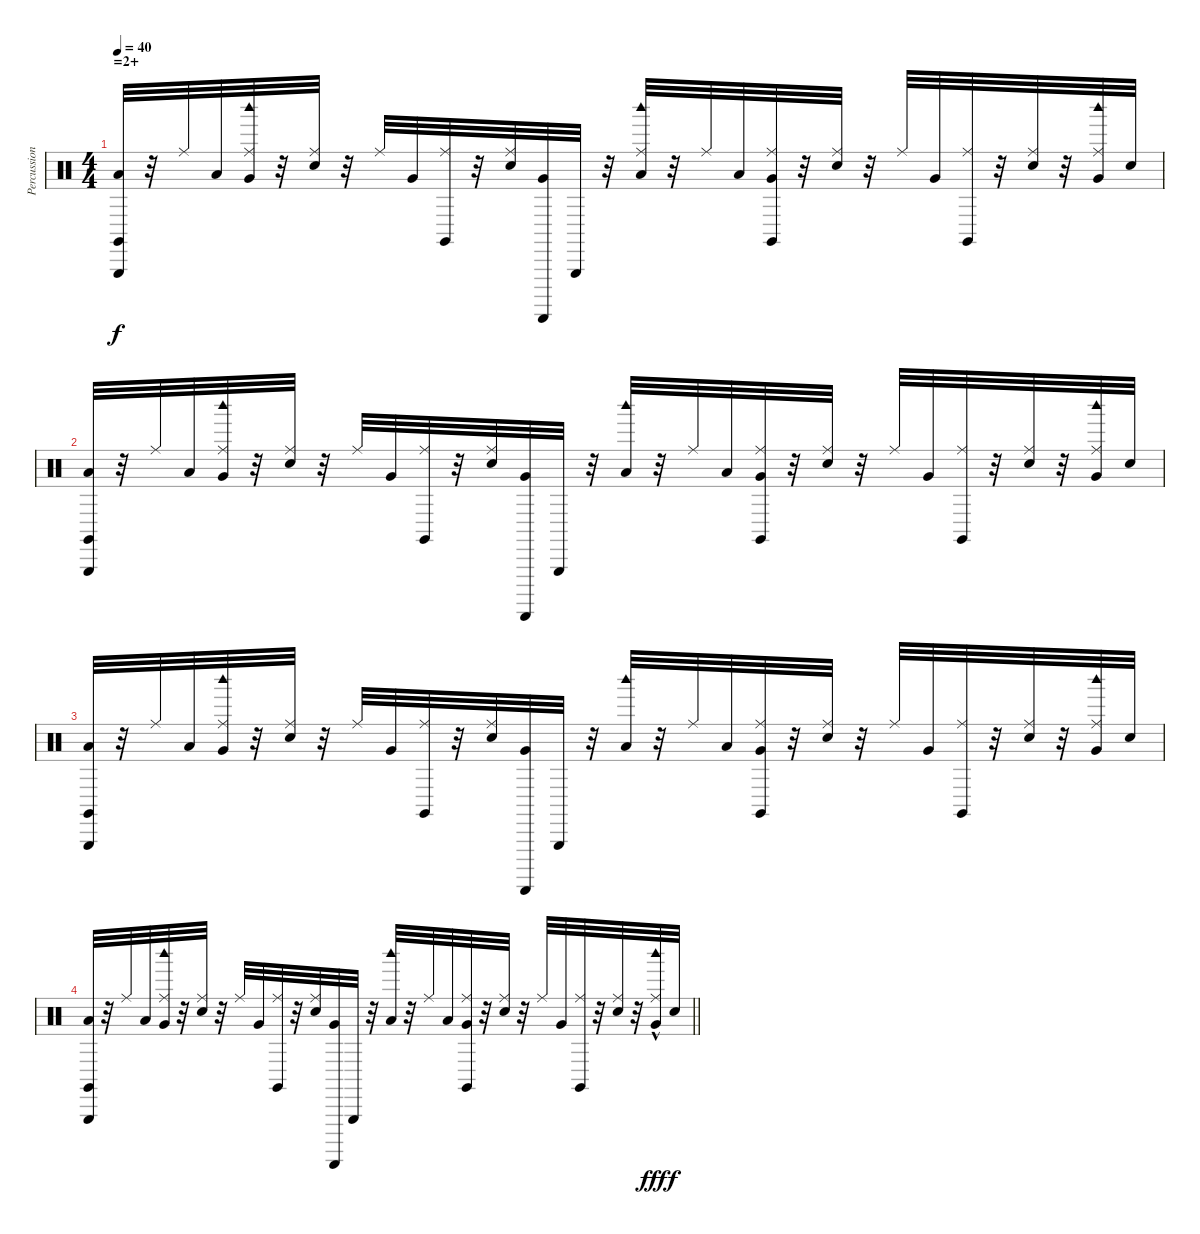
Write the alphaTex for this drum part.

\track ("Percussion" "Percussion") {instrument percussion}
\staff {score}
\articulation defaults
\ts (4 4)
\section ("" "=2+")
\tempo 40
\clef neutral
\ks c
("Low Floor Tom (hit)" "Triangle (hit)" "Claves (hit)").32{dy f} r.32 "Ride (middle)".32 "Low Floor Tom (hit)".32 ("Very Low Tom (hit)" "Ride (middle)" "Woodblock high (hit)").32 r.32 ("Electric Snare (hit)" "Ride (middle)").32 r.32 "Ride (middle)".32 "Very Low Tom (hit)".32 ("Ride (middle)" "Claves (hit)").32 r.32 ("Electric Snare (hit)" "Ride (middle)").32 ("Very Low Tom (hit)" "Guiro (scrap-return)").32 "Triangle (hit)".32 r.32 ("Low Floor Tom (hit)" "Ride (middle)" "Woodblock high (hit)").32 r.32 "Ride (middle)".32 "Low Floor Tom (hit)".32 ("Very Low Tom (hit)" "Ride (middle)" "Claves (hit)").32 r.32 ("Electric Snare (hit)" "Ride (middle)").32 r.32 "Ride (middle)".32 "Very Low Tom (hit)".32 ("Ride (middle)" "Claves (hit)").32 r.32 ("Electric Snare (hit)" "Ride (middle)").32 r.32 ("Very Low Tom (hit)" "Ride (middle)" "Woodblock high (hit)").32 "Electric Snare (hit)".32 |
("Low Floor Tom (hit)" "Triangle (hit)" "Claves (hit)").32 r.32 "Ride (middle)".32 "Low Floor Tom (hit)".32 ("Very Low Tom (hit)" "Ride (middle)" "Woodblock high (hit)").32 r.32 ("Electric Snare (hit)" "Ride (middle)").32 r.32 "Ride (middle)".32 "Very Low Tom (hit)".32 ("Ride (middle)" "Claves (hit)").32 r.32 ("Electric Snare (hit)" "Ride (middle)").32 ("Very Low Tom (hit)" "Guiro (scrap-return)").32 "Triangle (hit)".32 r.32 ("Low Floor Tom (hit)" "Woodblock high (hit)").32 r.32 "Ride (middle)".32 "Low Floor Tom (hit)".32 ("Very Low Tom (hit)" "Ride (middle)" "Claves (hit)").32 r.32 ("Electric Snare (hit)" "Ride (middle)").32 r.32 "Ride (middle)".32 "Very Low Tom (hit)".32 ("Ride (middle)" "Claves (hit)").32 r.32 ("Electric Snare (hit)" "Ride (middle)").32 r.32 ("Very Low Tom (hit)" "Ride (middle)" "Woodblock high (hit)").32 "Electric Snare (hit)".32 |
("Low Floor Tom (hit)" "Triangle (hit)" "Claves (hit)").32 r.32 "Ride (middle)".32 "Low Floor Tom (hit)".32 ("Very Low Tom (hit)" "Ride (middle)" "Woodblock high (hit)").32 r.32 ("Electric Snare (hit)" "Ride (middle)").32 r.32 "Ride (middle)".32 "Very Low Tom (hit)".32 ("Ride (middle)" "Claves (hit)").32 r.32 ("Electric Snare (hit)" "Ride (middle)").32 ("Very Low Tom (hit)" "Guiro (scrap-return)").32 "Triangle (hit)".32 r.32 ("Low Floor Tom (hit)" "Woodblock high (hit)").32 r.32 "Ride (middle)".32 "Low Floor Tom (hit)".32 ("Very Low Tom (hit)" "Ride (middle)" "Claves (hit)").32 r.32 ("Electric Snare (hit)" "Ride (middle)").32 r.32 "Ride (middle)".32 "Very Low Tom (hit)".32 ("Ride (middle)" "Claves (hit)").32 r.32 ("Electric Snare (hit)" "Ride (middle)").32 r.32 ("Very Low Tom (hit)" "Ride (middle)" "Woodblock high (hit)").32 "Electric Snare (hit)".32 |
\barLineRight lightlight
("Low Floor Tom (hit)" "Triangle (hit)" "Claves (hit)").32 r.32 "Ride (middle)".32 "Low Floor Tom (hit)".32 ("Very Low Tom (hit)" "Ride (middle)" "Woodblock high (hit)").32 r.32 ("Electric Snare (hit)" "Ride (middle)").32 r.32 "Ride (middle)".32 "Very Low Tom (hit)".32 ("Ride (middle)" "Claves (hit)").32 r.32 ("Electric Snare (hit)" "Ride (middle)").32 ("Very Low Tom (hit)" "Guiro (scrap-return)").32 "Triangle (hit)".32 r.32 ("Low Floor Tom (hit)" "Woodblock high (hit)").32 r.32 "Ride (middle)".32 "Low Floor Tom (hit)".32 ("Very Low Tom (hit)" "Ride (middle)" "Claves (hit)").32 r.32 ("Electric Snare (hit)" "Ride (middle)").32 r.32 "Ride (middle)".32 "Very Low Tom (hit)".32 ("Ride (middle)" "Claves (hit)").32 r.32 ("Electric Snare (hit)" "Ride (middle)").32 r.32 ("Very Low Tom (hit)" "Ride (middle)"{hac} "Woodblock high (hit)").32{dy fff} "Electric Snare (hit)".32{dy f}
